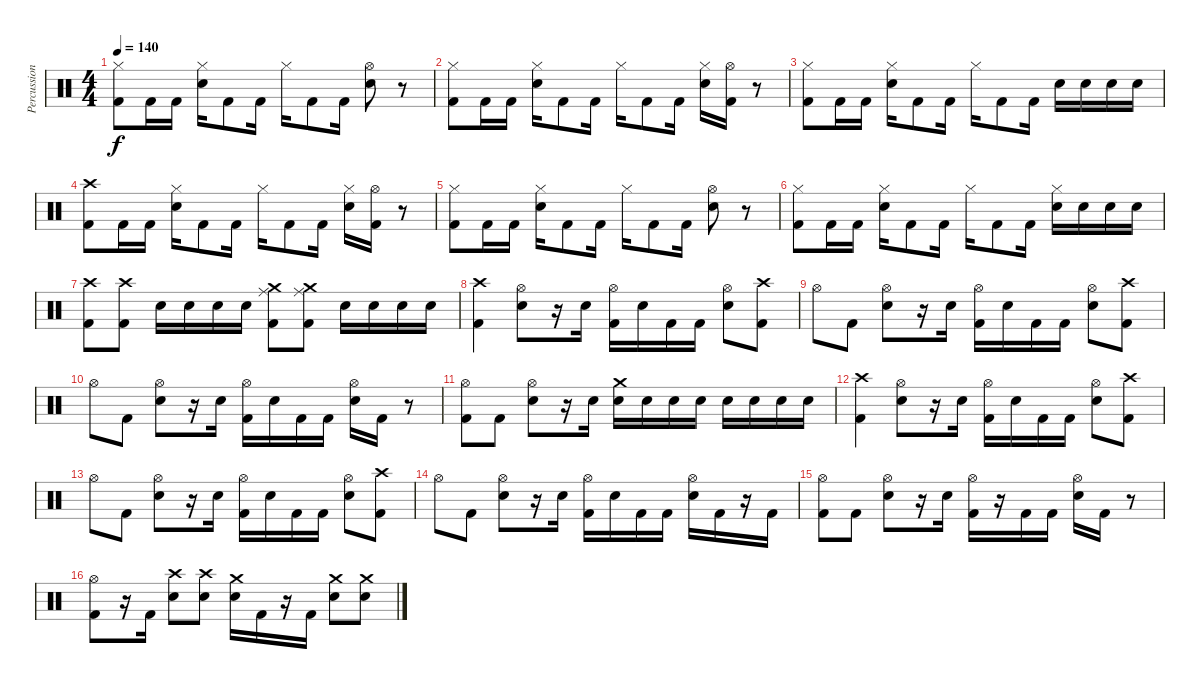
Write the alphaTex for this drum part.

\track ("Percussion" "Percussion") {instrument percussion}
\staff {score}
\articulation defaults
\ts (4 4)
\tempo 140
\clef neutral
\ks c
("Hi-Hat (closed)" "Kick (hit) 2").8{dy f} "Kick (hit) 2".16 "Kick (hit) 2".16 ("Hi-Hat (closed)" "Snare (hit) 2").16 "Kick (hit) 2".8 "Kick (hit) 2".16 "Hi-Hat (closed)".16 "Kick (hit) 2".8 "Kick (hit) 2".16 ("Hi-Hat (open)" "Snare (hit) 2").8 r.8 |
("Hi-Hat (closed)" "Kick (hit) 2").8 "Kick (hit) 2".16 "Kick (hit) 2".16 ("Hi-Hat (closed)" "Snare (hit) 2").16 "Kick (hit) 2".8 "Kick (hit) 2".16 "Hi-Hat (closed)".16 "Kick (hit) 2".8 "Kick (hit) 2".16 ("Hi-Hat (closed)" "Snare (hit) 2").16 ("Hi-Hat (open)" "Kick (hit) 2").16 r.8 |
("Hi-Hat (closed)" "Kick (hit) 2").8 "Kick (hit) 2".16 "Kick (hit) 2".16 ("Hi-Hat (closed)" "Snare (hit) 2").16 "Kick (hit) 2".8 "Kick (hit) 2".16 "Hi-Hat (closed)".16 "Kick (hit) 2".8 "Kick (hit) 2".16 "Snare (hit) 2".16 "Snare (hit) 2".16 "Snare (hit) 2".16 "Snare (hit) 2".16 |
("Crash high (hit)" "Kick (hit) 2").8 "Kick (hit) 2".16 "Kick (hit) 2".16 ("Hi-Hat (closed)" "Snare (hit) 2").16 "Kick (hit) 2".8 "Kick (hit) 2".16 "Hi-Hat (closed)".16 "Kick (hit) 2".8 "Kick (hit) 2".16 ("Hi-Hat (closed)" "Snare (hit) 2").16 ("Hi-Hat (open)" "Kick (hit) 2").16 r.8 |
("Hi-Hat (closed)" "Kick (hit) 2").8 "Kick (hit) 2".16 "Kick (hit) 2".16 ("Hi-Hat (closed)" "Snare (hit) 2").16 "Kick (hit) 2".8 "Kick (hit) 2".16 "Hi-Hat (closed)".16 "Kick (hit) 2".8 "Kick (hit) 2".16 ("Hi-Hat (open)" "Snare (hit) 2").8 r.8 |
("Hi-Hat (closed)" "Kick (hit) 2").8 "Kick (hit) 2".16 "Kick (hit) 2".16 ("Hi-Hat (closed)" "Snare (hit) 2").16 "Kick (hit) 2".8 "Kick (hit) 2".16 "Hi-Hat (closed)".16 "Kick (hit) 2".8 "Kick (hit) 2".16 ("Hi-Hat (closed)" "Snare (hit) 2").16 "Snare (hit) 2".16 "Snare (hit) 2".16 "Snare (hit) 2".16 |
("Crash high (hit)" "Kick (hit) 2").8 ("Crash high (hit)" "Kick (hit) 2").8 "Snare (hit) 2".16 "Snare (hit) 2".16 "Snare (hit) 2".16 "Snare (hit) 2".16 ("Ride (middle)" "Crash medium (hit)" "Kick (hit) 2").8 ("Ride (middle)" "Crash medium (hit)" "Kick (hit) 2").8 "Snare (hit) 2".16 "Snare (hit) 2".16 "Snare (hit) 2".16 "Snare (hit) 2".16 |
("Crash high (hit)" "Kick (hit) 2").4 ("Hi-Hat (open)" "Snare (hit) 2").8 r.16 "Snare (hit) 2".16 ("Hi-Hat (open)" "Kick (hit) 2").16 "Snare (hit) 2".16 "Kick (hit) 2".16 "Kick (hit) 2".16 ("Hi-Hat (open)" "Snare (hit) 2").8 ("Crash high (hit)" "Kick (hit) 2").8 |
"Hi-Hat (open)".8 "Kick (hit) 2".8 ("Hi-Hat (open)" "Snare (hit) 2").8 r.16 "Snare (hit) 2".16 ("Hi-Hat (open)" "Kick (hit) 2").16 "Snare (hit) 2".16 "Kick (hit) 2".16 "Kick (hit) 2".16 ("Hi-Hat (open)" "Snare (hit) 2").8 ("Crash high (hit)" "Kick (hit) 2").8 |
"Hi-Hat (open)".8 "Kick (hit) 2".8 ("Hi-Hat (open)" "Snare (hit) 2").8 r.16 "Snare (hit) 2".16 ("Hi-Hat (open)" "Kick (hit) 2").16 "Snare (hit) 2".16 "Kick (hit) 2".16 "Kick (hit) 2".16 ("Hi-Hat (open)" "Snare (hit) 2").16 "Kick (hit) 2".16 r.8 |
("Hi-Hat (open)" "Kick (hit) 2").8 "Kick (hit) 2".8 ("Hi-Hat (open)" "Snare (hit) 2").8 r.16 "Snare (hit) 2".16 ("Crash medium (hit)" "Snare (hit) 2").16 "Snare (hit) 2".16 "Snare (hit) 2".16 "Snare (hit) 2".16 "Snare (hit) 2".16 "Snare (hit) 2".16 "Snare (hit) 2".16 "Snare (hit) 2".16 |
("Crash high (hit)" "Kick (hit) 2").4 ("Hi-Hat (open)" "Snare (hit) 2").8 r.16 "Snare (hit) 2".16 ("Hi-Hat (open)" "Kick (hit) 2").16 "Snare (hit) 2".16 "Kick (hit) 2".16 "Kick (hit) 2".16 ("Hi-Hat (open)" "Snare (hit) 2").8 ("Crash high (hit)" "Kick (hit) 2").8 |
"Hi-Hat (open)".8 "Kick (hit) 2".8 ("Hi-Hat (open)" "Snare (hit) 2").8 r.16 "Snare (hit) 2".16 ("Hi-Hat (open)" "Kick (hit) 2").16 "Snare (hit) 2".16 "Kick (hit) 2".16 "Kick (hit) 2".16 ("Hi-Hat (open)" "Snare (hit) 2").8 ("Crash high (hit)" "Kick (hit) 2").8 |
"Hi-Hat (open)".8 "Kick (hit) 2".8 ("Hi-Hat (open)" "Snare (hit) 2").8 r.16 "Snare (hit) 2".16 ("Hi-Hat (open)" "Kick (hit) 2").16 "Snare (hit) 2".16 "Kick (hit) 2".16 "Kick (hit) 2".16 ("Hi-Hat (open)" "Snare (hit) 2").16 "Kick (hit) 2".16 r.16 "Kick (hit) 2".16 |
("Hi-Hat (open)" "Kick (hit) 2").8 "Kick (hit) 2".8 ("Hi-Hat (open)" "Snare (hit) 2").8 r.16 "Snare (hit) 2".16 ("Hi-Hat (open)" "Kick (hit) 2").16 r.16 "Kick (hit) 2".16 "Kick (hit) 2".16 ("Hi-Hat (open)" "Snare (hit) 2").16 "Kick (hit) 2".16 r.8 |
("Hi-Hat (open)" "Kick (hit) 2").8 r.16 "Kick (hit) 2".16 ("Crash high (hit)" "Snare (hit) 2").8 ("Crash high (hit)" "Snare (hit) 2").8 ("Crash medium (hit)" "Snare (hit) 2").16 "Kick (hit) 2".16 r.16 "Kick (hit) 2".16 ("Crash medium (hit)" "Snare (hit) 2").8 ("Crash medium (hit)" "Snare (hit) 2").8
